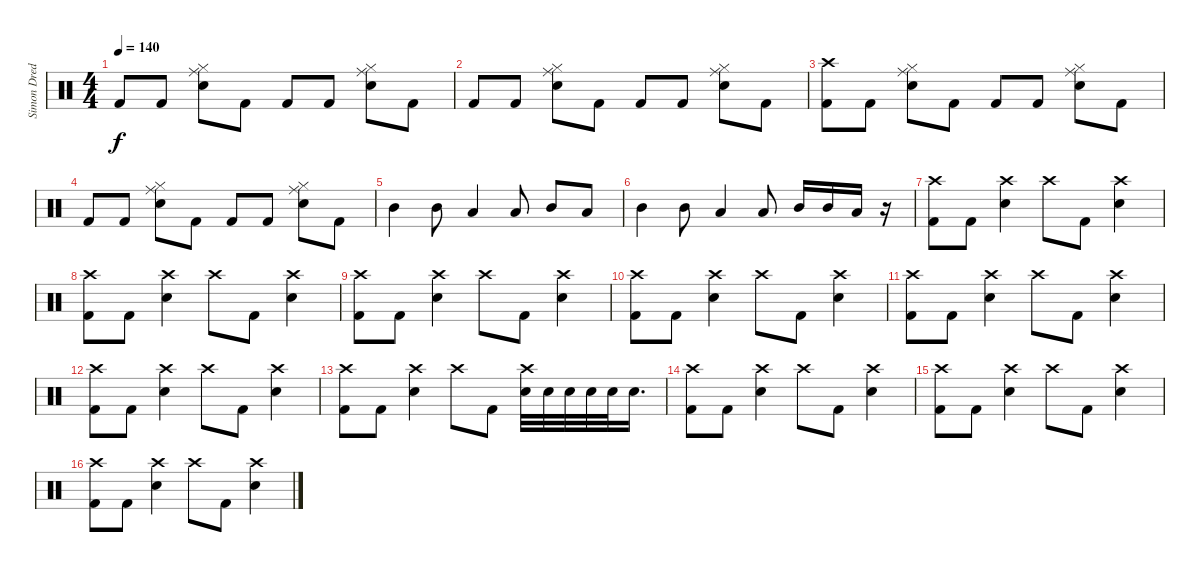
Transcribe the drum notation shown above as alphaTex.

\track ("Simon Dredo" "Simon Dred") {instrument percussion}
\staff {score}
\articulation defaults
\ts (4 4)
\tempo 140
\clef neutral
\ks c "Kick (hit) 2".8{dy f} "Kick (hit) 2".8
("Hi-Hat (closed)" "Ride (middle)" "Snare (hit) 2").8 "Kick (hit) 2".8 "Kick (hit) 2".8 "Kick (hit) 2".8 ("Hi-Hat (closed)" "Ride (middle)" "Snare (hit) 2").8 "Kick (hit) 2".8 |
"Kick (hit) 2".8 "Kick (hit) 2".8 ("Hi-Hat (closed)" "Ride (middle)" "Snare (hit) 2").8 "Kick (hit) 2".8 "Kick (hit) 2".8 "Kick (hit) 2".8 ("Hi-Hat (closed)" "Ride (middle)" "Snare (hit) 2").8 "Kick (hit) 2".8 |
("Crash high (hit)" "Kick (hit) 2").8 "Kick (hit) 2".8 ("Hi-Hat (closed)" "Ride (middle)" "Snare (hit) 2").8 "Kick (hit) 2".8 "Kick (hit) 2".8 "Kick (hit) 2".8 ("Hi-Hat (closed)" "Ride (middle)" "Snare (hit) 2").8 "Kick (hit) 2".8 |
"Kick (hit) 2".8 "Kick (hit) 2".8 ("Hi-Hat (closed)" "Ride (middle)" "Snare (hit) 2").8 "Kick (hit) 2".8 "Kick (hit) 2".8 "Kick (hit) 2".8 ("Hi-Hat (closed)" "Ride (middle)" "Snare (hit) 2").8 "Kick (hit) 2".8 |
"Mid Tom (hit)".4 "Mid Tom (hit)".8 "Low Tom (hit)".4 "Low Tom (hit)".8 "Mid Tom (hit)".8 "Low Tom (hit)".8 |
"Mid Tom (hit)".4 "Mid Tom (hit)".8 "Low Tom (hit)".4 "Low Tom (hit)".8 "Mid Tom (hit)".16 "Mid Tom (hit)".16 "Low Tom (hit)".16 r.16 |
("Crash high (hit)" "Kick (hit) 2").8 "Kick (hit) 2".8 ("Crash high (hit)" "Electric Snare (hit)").4 "Crash high (hit)".8 "Kick (hit) 2".8 ("Crash high (hit)" "Electric Snare (hit)").4 |
("Crash high (hit)" "Kick (hit) 2").8 "Kick (hit) 2".8 ("Crash high (hit)" "Electric Snare (hit)").4 "Crash high (hit)".8 "Kick (hit) 2".8 ("Crash high (hit)" "Electric Snare (hit)").4 |
("Crash high (hit)" "Kick (hit) 2").8 "Kick (hit) 2".8 ("Crash high (hit)" "Electric Snare (hit)").4 "Crash high (hit)".8 "Kick (hit) 2".8 ("Crash high (hit)" "Electric Snare (hit)").4 |
("Crash high (hit)" "Kick (hit) 2").8 "Kick (hit) 2".8 ("Crash high (hit)" "Electric Snare (hit)").4 "Crash high (hit)".8 "Kick (hit) 2".8 ("Crash high (hit)" "Electric Snare (hit)").4 |
("Crash high (hit)" "Kick (hit) 2").8 "Kick (hit) 2".8 ("Crash high (hit)" "Electric Snare (hit)").4 "Crash high (hit)".8 "Kick (hit) 2".8 ("Crash high (hit)" "Electric Snare (hit)").4 |
("Crash high (hit)" "Kick (hit) 2").8 "Kick (hit) 2".8 ("Crash high (hit)" "Electric Snare (hit)").4 "Crash high (hit)".8 "Kick (hit) 2".8 ("Crash high (hit)" "Electric Snare (hit)").4 |
("Crash high (hit)" "Kick (hit) 2").8 "Kick (hit) 2".8 ("Crash high (hit)" "Electric Snare (hit)").4 "Crash high (hit)".8 "Kick (hit) 2".8 ("Crash high (hit)" "Electric Snare (hit)").32 "Electric Snare (hit)".32 "Electric Snare (hit)".32 "Electric Snare (hit)".32 "Electric Snare (hit)".32 "Electric Snare (hit)".16{d} |
("Crash high (hit)" "Kick (hit) 2").8 "Kick (hit) 2".8 ("Crash high (hit)" "Electric Snare (hit)").4 "Crash high (hit)".8 "Kick (hit) 2".8 ("Crash high (hit)" "Electric Snare (hit)").4 |
("Crash high (hit)" "Kick (hit) 2").8 "Kick (hit) 2".8 ("Crash high (hit)" "Electric Snare (hit)").4 "Crash high (hit)".8 "Kick (hit) 2".8 ("Crash high (hit)" "Electric Snare (hit)").4 |
("Crash high (hit)" "Kick (hit) 2").8 "Kick (hit) 2".8 ("Crash high (hit)" "Electric Snare (hit)").4 "Crash high (hit)".8 "Kick (hit) 2".8 ("Crash high (hit)" "Electric Snare (hit)").4
